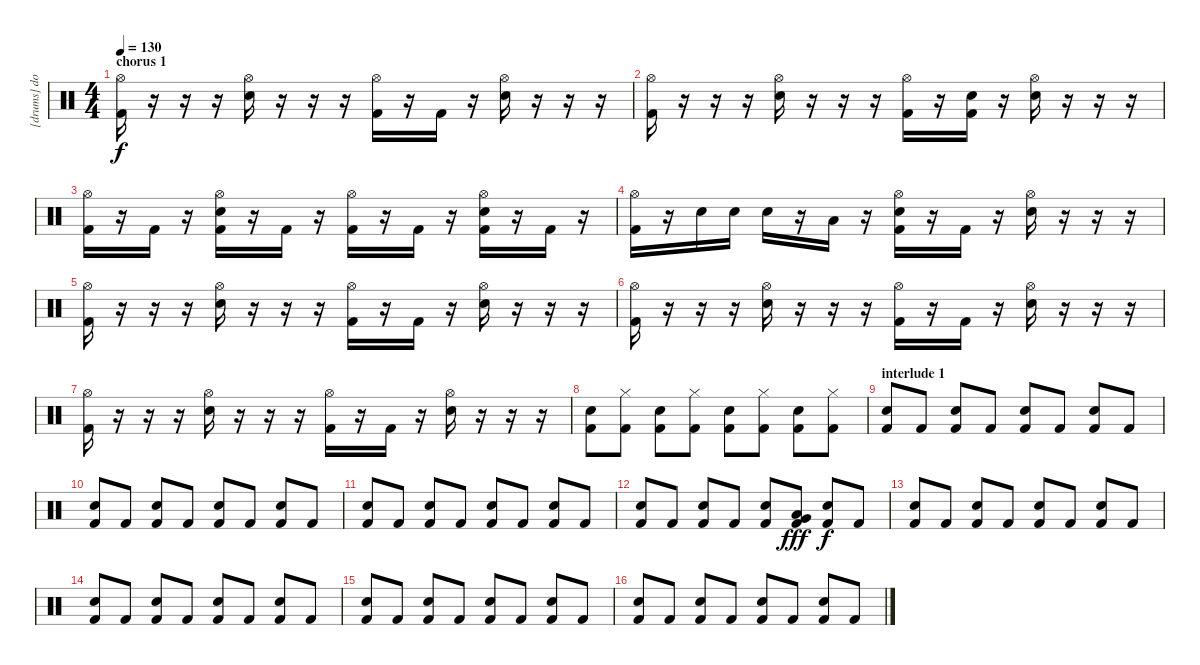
\track ("[drums] dom" "[drums] do") {instrument percussion}
\staff {score}
\articulation defaults
\ts (4 4)
\section ("" "chorus 1")
\tempo 130
\clef neutral
\ks c
("Hi-Hat (open)" "Kick (hit) 2").16{dy f} r.16 r.16 r.16 ("Hi-Hat (open)" "Snare (hit) 2").16 r.16 r.16 r.16 ("Hi-Hat (open)" "Kick (hit) 2").16 r.16 "Kick (hit) 2".16 r.16 ("Hi-Hat (open)" "Snare (hit) 2").16 r.16 r.16 r.16 |
("Hi-Hat (open)" "Kick (hit) 2").16 r.16 r.16 r.16 ("Hi-Hat (open)" "Snare (hit) 2").16 r.16 r.16 r.16 ("Hi-Hat (open)" "Kick (hit) 2").16 r.16 ("Snare (hit) 2" "Kick (hit) 2").16 r.16 ("Hi-Hat (open)" "Snare (hit) 2").16 r.16 r.16 r.16 |
("Hi-Hat (open)" "Kick (hit) 2").16 r.16 "Kick (hit) 2".16 r.16 ("Hi-Hat (open)" "Snare (hit) 2" "Kick (hit) 2").16 r.16 "Kick (hit) 2".16 r.16 ("Hi-Hat (open)" "Kick (hit) 2").16 r.16 "Kick (hit) 2".16 r.16 ("Hi-Hat (open)" "Snare (hit) 2" "Kick (hit) 2").16 r.16 "Kick (hit) 2".16 r.16 |
("Hi-Hat (open)" "Kick (hit) 2").16 r.16 "Snare (hit) 2".16 "Snare (hit) 2".16 "Snare (hit) 2".16 r.16 "Low Floor Tom (hit)".16 r.16 ("Hi-Hat (open)" "Snare (hit) 2" "Kick (hit) 2").16 r.16 "Kick (hit) 2".16 r.16 ("Hi-Hat (open)" "Snare (hit) 2").16 r.16 r.16 r.16 |
("Hi-Hat (open)" "Kick (hit) 2").16 r.16 r.16 r.16 ("Hi-Hat (open)" "Snare (hit) 2").16 r.16 r.16 r.16 ("Hi-Hat (open)" "Kick (hit) 2").16 r.16 "Kick (hit) 2".16 r.16 ("Hi-Hat (open)" "Snare (hit) 2").16 r.16 r.16 r.16 |
("Hi-Hat (open)" "Kick (hit) 2").16 r.16 r.16 r.16 ("Hi-Hat (open)" "Snare (hit) 2").16 r.16 r.16 r.16 ("Hi-Hat (open)" "Kick (hit) 2").16 r.16 "Kick (hit) 2".16 r.16 ("Hi-Hat (open)" "Snare (hit) 2").16 r.16 r.16 r.16 |
("Hi-Hat (open)" "Kick (hit) 2").16 r.16 r.16 r.16 ("Hi-Hat (open)" "Snare (hit) 2").16 r.16 r.16 r.16 ("Hi-Hat (open)" "Kick (hit) 2").16 r.16 "Kick (hit) 2".16 r.16 ("Hi-Hat (open)" "Snare (hit) 2").16 r.16 r.16 r.16 |
("Snare (hit) 2" "Kick (hit) 2").8 ("Hi-Hat (closed)" "Kick (hit) 2").8 ("Snare (hit) 2" "Kick (hit) 2").8 ("Hi-Hat (closed)" "Kick (hit) 2").8 ("Snare (hit) 2" "Kick (hit) 2").8 ("Hi-Hat (closed)" "Kick (hit) 2").8 ("Snare (hit) 2" "Kick (hit) 2").8 ("Hi-Hat (closed)" "Kick (hit) 2").8 |
\section ("" "interlude 1")
("Snare (hit) 2" "Kick (hit) 2").8 "Kick (hit) 2".8 ("Snare (hit) 2" "Kick (hit) 2").8 "Kick (hit) 2".8 ("Snare (hit) 2" "Kick (hit) 2").8 "Kick (hit) 2".8 ("Snare (hit) 2" "Kick (hit) 2").8 "Kick (hit) 2".8 |
("Snare (hit) 2" "Kick (hit) 2").8 "Kick (hit) 2".8 ("Snare (hit) 2" "Kick (hit) 2").8 "Kick (hit) 2".8 ("Snare (hit) 2" "Kick (hit) 2").8 "Kick (hit) 2".8 ("Snare (hit) 2" "Kick (hit) 2").8 "Kick (hit) 2".8 |
("Snare (hit) 2" "Kick (hit) 2").8 "Kick (hit) 2".8 ("Snare (hit) 2" "Kick (hit) 2").8 "Kick (hit) 2".8 ("Snare (hit) 2" "Kick (hit) 2").8 "Kick (hit) 2".8 ("Snare (hit) 2" "Kick (hit) 2").8 "Kick (hit) 2".8 |
("Snare (hit) 2" "Kick (hit) 2").8 "Kick (hit) 2".8 ("Snare (hit) 2" "Kick (hit) 2").8 "Kick (hit) 2".8 ("Snare (hit) 2" "Kick (hit) 2").8 ("Low Floor Tom (hit)" "Very Low Tom (hit)" "Kick (hit) 2").8{dy fff} ("Snare (hit) 2" "Kick (hit) 2").8{dy f} "Kick (hit) 2".8 |
("Snare (hit) 2" "Kick (hit) 2").8 "Kick (hit) 2".8 ("Snare (hit) 2" "Kick (hit) 2").8 "Kick (hit) 2".8 ("Snare (hit) 2" "Kick (hit) 2").8 "Kick (hit) 2".8 ("Snare (hit) 2" "Kick (hit) 2").8 "Kick (hit) 2".8 |
("Snare (hit) 2" "Kick (hit) 2").8 "Kick (hit) 2".8 ("Snare (hit) 2" "Kick (hit) 2").8 "Kick (hit) 2".8 ("Snare (hit) 2" "Kick (hit) 2").8 "Kick (hit) 2".8 ("Snare (hit) 2" "Kick (hit) 2").8 "Kick (hit) 2".8 |
("Snare (hit) 2" "Kick (hit) 2").8 "Kick (hit) 2".8 ("Snare (hit) 2" "Kick (hit) 2").8 "Kick (hit) 2".8 ("Snare (hit) 2" "Kick (hit) 2").8 "Kick (hit) 2".8 ("Snare (hit) 2" "Kick (hit) 2").8 "Kick (hit) 2".8 |
("Snare (hit) 2" "Kick (hit) 2").8 "Kick (hit) 2".8 ("Snare (hit) 2" "Kick (hit) 2").8 "Kick (hit) 2".8 ("Snare (hit) 2" "Kick (hit) 2").8 "Kick (hit) 2".8 ("Snare (hit) 2" "Kick (hit) 2").8 "Kick (hit) 2".8
